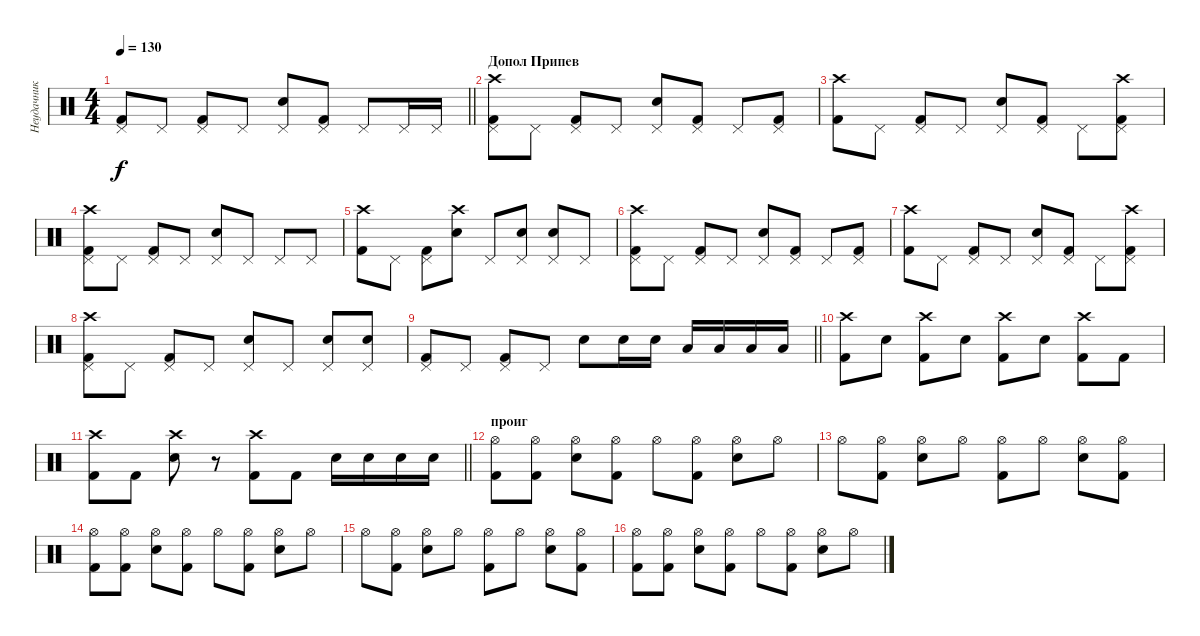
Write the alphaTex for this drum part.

\track ("Неудачник" "Неудачник") {instrument percussion}
\staff {score}
\articulation defaults
\ts (4 4)
\tempo 130
\clef neutral
\barLineRight lightlight
\ks c
("Pedal Hi-Hat (hit)" "Kick (hit) 2").8{dy f} "Pedal Hi-Hat (hit)".8 ("Pedal Hi-Hat (hit)" "Kick (hit) 2").8 "Pedal Hi-Hat (hit)".8 ("Pedal Hi-Hat (hit)" "Electric Snare (hit)").8 ("Pedal Hi-Hat (hit)" "Kick (hit) 2").8 "Pedal Hi-Hat (hit)".8 "Pedal Hi-Hat (hit)".16 "Pedal Hi-Hat (hit)".16 |
\section ("" "Допол Припев")
("Crash high (hit)" "Pedal Hi-Hat (hit)" "Kick (hit) 2").8 "Pedal Hi-Hat (hit)".8 ("Pedal Hi-Hat (hit)" "Kick (hit) 2").8 "Pedal Hi-Hat (hit)".8 ("Pedal Hi-Hat (hit)" "Electric Snare (hit)").8 ("Pedal Hi-Hat (hit)" "Kick (hit) 2").8 "Pedal Hi-Hat (hit)".8 ("Pedal Hi-Hat (hit)" "Kick (hit) 2").8 |
("Crash high (hit)" "Kick (hit) 2").8 "Pedal Hi-Hat (hit)".8 ("Pedal Hi-Hat (hit)" "Kick (hit) 2").8 "Pedal Hi-Hat (hit)".8 ("Pedal Hi-Hat (hit)" "Electric Snare (hit)").8 ("Pedal Hi-Hat (hit)" "Kick (hit) 2").8 "Pedal Hi-Hat (hit)".8 ("Crash high (hit)" "Pedal Hi-Hat (hit)" "Kick (hit) 2").8 |
("Crash high (hit)" "Pedal Hi-Hat (hit)" "Kick (hit) 2").8 "Pedal Hi-Hat (hit)".8 ("Pedal Hi-Hat (hit)" "Kick (hit) 2").8 "Pedal Hi-Hat (hit)".8 ("Pedal Hi-Hat (hit)" "Electric Snare (hit)").8 "Pedal Hi-Hat (hit)".8 "Pedal Hi-Hat (hit)".8 "Pedal Hi-Hat (hit)".8 |
("Crash high (hit)" "Kick (hit) 2").8 "Pedal Hi-Hat (hit)".8 ("Pedal Hi-Hat (hit)" "Kick (hit) 2").8 ("Crash high (hit)" "Electric Snare (hit)").8 "Pedal Hi-Hat (hit)".8 ("Pedal Hi-Hat (hit)" "Electric Snare (hit)").8 ("Pedal Hi-Hat (hit)" "Electric Snare (hit)").8 "Pedal Hi-Hat (hit)".8 |
("Crash high (hit)" "Pedal Hi-Hat (hit)" "Kick (hit) 2").8 "Pedal Hi-Hat (hit)".8 ("Pedal Hi-Hat (hit)" "Kick (hit) 2").8 "Pedal Hi-Hat (hit)".8 ("Pedal Hi-Hat (hit)" "Electric Snare (hit)").8 ("Pedal Hi-Hat (hit)" "Kick (hit) 2").8 "Pedal Hi-Hat (hit)".8 ("Pedal Hi-Hat (hit)" "Kick (hit) 2").8 |
("Crash high (hit)" "Kick (hit) 2").8 "Pedal Hi-Hat (hit)".8 ("Pedal Hi-Hat (hit)" "Kick (hit) 2").8 "Pedal Hi-Hat (hit)".8 ("Pedal Hi-Hat (hit)" "Electric Snare (hit)").8 ("Pedal Hi-Hat (hit)" "Kick (hit) 2").8 "Pedal Hi-Hat (hit)".8 ("Crash high (hit)" "Pedal Hi-Hat (hit)" "Kick (hit) 2").8 |
("Crash high (hit)" "Pedal Hi-Hat (hit)" "Kick (hit) 2").8 "Pedal Hi-Hat (hit)".8 ("Pedal Hi-Hat (hit)" "Kick (hit) 2").8 "Pedal Hi-Hat (hit)".8 ("Pedal Hi-Hat (hit)" "Electric Snare (hit)").8 "Pedal Hi-Hat (hit)".8 ("Pedal Hi-Hat (hit)" "Electric Snare (hit)").8 ("Pedal Hi-Hat (hit)" "Electric Snare (hit)").8 |
\barLineRight lightlight
("Pedal Hi-Hat (hit)" "Kick (hit) 2").8 "Pedal Hi-Hat (hit)".8 ("Pedal Hi-Hat (hit)" "Kick (hit) 2").8 "Pedal Hi-Hat (hit)".8 "Electric Snare (hit)".8 "Electric Snare (hit)".16 "Electric Snare (hit)".16 "Low Floor Tom (hit)".16 "Low Floor Tom (hit)".16 "Low Tom (hit)".16 "Low Tom (hit)".16 |
("Crash high (hit)" "Kick (hit) 2").8 "Electric Snare (hit)".8 ("Crash high (hit)" "Kick (hit) 2").8 "Electric Snare (hit)".8 ("Crash high (hit)" "Kick (hit) 2").8 "Electric Snare (hit)".8 ("Crash high (hit)" "Kick (hit) 2").8 "Kick (hit) 2".8 |
\barLineRight lightlight
("Crash high (hit)" "Kick (hit) 2").8 "Kick (hit) 2".8 ("Crash high (hit)" "Electric Snare (hit)").8 r.8 ("Crash high (hit)" "Kick (hit) 2").8 "Kick (hit) 2".8 "Electric Snare (hit)".16 "Electric Snare (hit)".16 "Electric Snare (hit)".16 "Electric Snare (hit)".16 |
\section ("" "проиг")
("Hi-Hat (open)" "Kick (hit) 2").8 ("Hi-Hat (open)" "Kick (hit) 2").8 ("Hi-Hat (open)" "Electric Snare (hit)").8 ("Hi-Hat (open)" "Kick (hit) 2").8 "Hi-Hat (open)".8 ("Hi-Hat (open)" "Kick (hit) 2").8 ("Hi-Hat (open)" "Electric Snare (hit)").8 "Hi-Hat (open)".8 |
"Hi-Hat (open)".8 ("Hi-Hat (open)" "Kick (hit) 2").8 ("Hi-Hat (open)" "Electric Snare (hit)").8 "Hi-Hat (open)".8 ("Hi-Hat (open)" "Kick (hit) 2").8 "Hi-Hat (open)".8 ("Hi-Hat (open)" "Electric Snare (hit)").8 ("Hi-Hat (open)" "Kick (hit) 2").8 |
("Hi-Hat (open)" "Kick (hit) 2").8 ("Hi-Hat (open)" "Kick (hit) 2").8 ("Hi-Hat (open)" "Electric Snare (hit)").8 ("Hi-Hat (open)" "Kick (hit) 2").8 "Hi-Hat (open)".8 ("Hi-Hat (open)" "Kick (hit) 2").8 ("Hi-Hat (open)" "Electric Snare (hit)").8 "Hi-Hat (open)".8 |
"Hi-Hat (open)".8 ("Hi-Hat (open)" "Kick (hit) 2").8 ("Hi-Hat (open)" "Electric Snare (hit)").8 "Hi-Hat (open)".8 ("Hi-Hat (open)" "Kick (hit) 2").8 "Hi-Hat (open)".8 ("Hi-Hat (open)" "Electric Snare (hit)").8 ("Hi-Hat (open)" "Kick (hit) 2").8 |
("Hi-Hat (open)" "Kick (hit) 2").8 ("Hi-Hat (open)" "Kick (hit) 2").8 ("Hi-Hat (open)" "Electric Snare (hit)").8 ("Hi-Hat (open)" "Kick (hit) 2").8 "Hi-Hat (open)".8 ("Hi-Hat (open)" "Kick (hit) 2").8 ("Hi-Hat (open)" "Electric Snare (hit)").8 "Hi-Hat (open)".8
